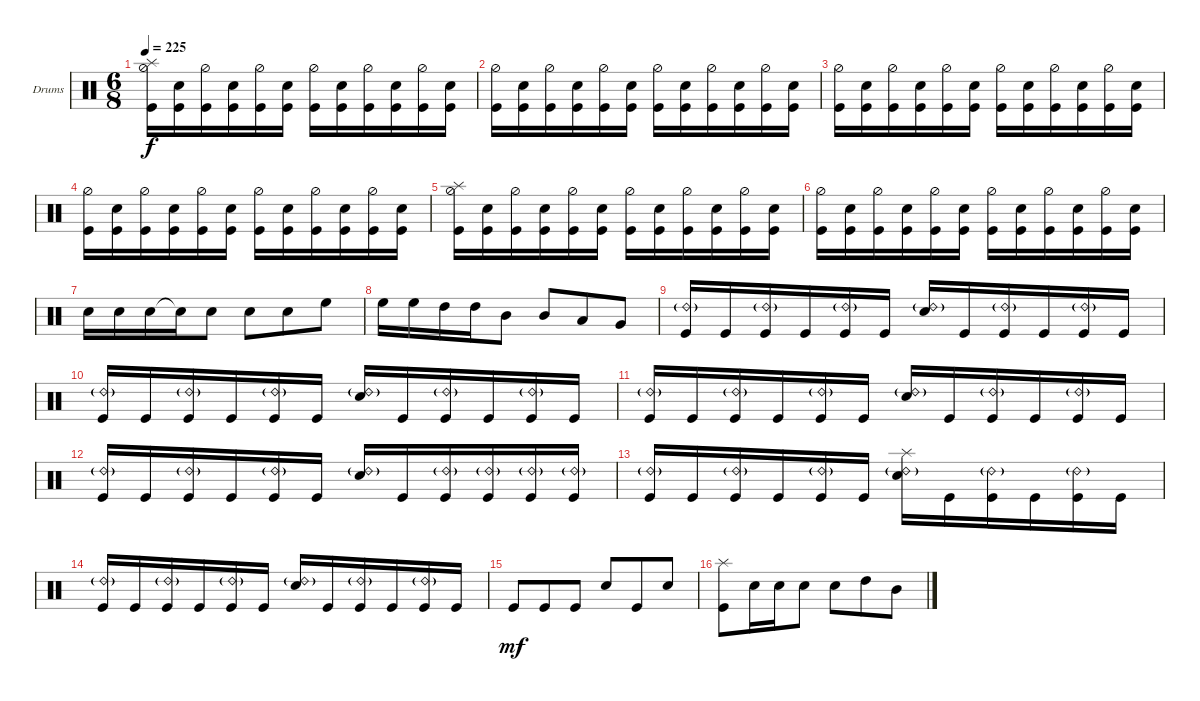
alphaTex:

\bracketExtendMode groupsimilarinstruments
\firstSystemTrackNameOrientation horizontal
\otherSystemsTrackNameOrientation horizontal
\track ("Drumkit" "Drums") {solo instrument percussion}
\staff {score}
\articulation defaults
\ts (6 8)
\tempo 225
\clef neutral
\ks c
("Kick (hit)" "Hi-Hat (half)" "Splash (hit)").16{dy f} ("Kick (hit)" "Snare (hit) 2").16 ("Kick (hit)" "Hi-Hat (half)").16 ("Kick (hit)" "Snare (hit) 2").16 ("Kick (hit)" "Hi-Hat (half)").16 ("Kick (hit)" "Snare (hit) 2").16 ("Kick (hit)" "Hi-Hat (half)").16 ("Kick (hit)" "Snare (hit) 2").16 ("Kick (hit)" "Hi-Hat (half)").16 ("Kick (hit)" "Snare (hit) 2").16 ("Kick (hit)" "Hi-Hat (half)").16 ("Kick (hit)" "Snare (hit) 2").16 |
("Kick (hit)" "Hi-Hat (half)").16 ("Kick (hit)" "Snare (hit) 2").16 ("Kick (hit)" "Hi-Hat (half)").16 ("Kick (hit)" "Snare (hit) 2").16 ("Kick (hit)" "Hi-Hat (half)").16 ("Kick (hit)" "Snare (hit) 2").16 ("Kick (hit)" "Hi-Hat (half)").16 ("Kick (hit)" "Snare (hit) 2").16 ("Kick (hit)" "Hi-Hat (half)").16 ("Kick (hit)" "Snare (hit) 2").16 ("Kick (hit)" "Hi-Hat (half)").16 ("Kick (hit)" "Snare (hit) 2").16 |
("Kick (hit)" "Hi-Hat (half)").16 ("Kick (hit)" "Snare (hit) 2").16 ("Kick (hit)" "Hi-Hat (half)").16 ("Kick (hit)" "Snare (hit) 2").16 ("Kick (hit)" "Hi-Hat (half)").16 ("Kick (hit)" "Snare (hit) 2").16 ("Kick (hit)" "Hi-Hat (half)").16 ("Kick (hit)" "Snare (hit) 2").16 ("Kick (hit)" "Hi-Hat (half)").16 ("Kick (hit)" "Snare (hit) 2").16 ("Kick (hit)" "Hi-Hat (half)").16 ("Kick (hit)" "Snare (hit) 2").16 |
("Kick (hit)" "Hi-Hat (half)").16 ("Kick (hit)" "Snare (hit) 2").16 ("Kick (hit)" "Hi-Hat (half)").16 ("Kick (hit)" "Snare (hit) 2").16 ("Kick (hit)" "Hi-Hat (half)").16 ("Kick (hit)" "Snare (hit) 2").16 ("Kick (hit)" "Hi-Hat (half)").16 ("Kick (hit)" "Snare (hit) 2").16 ("Kick (hit)" "Hi-Hat (half)").16 ("Kick (hit)" "Snare (hit) 2").16 ("Kick (hit)" "Hi-Hat (half)").16 ("Kick (hit)" "Snare (hit) 2").16 |
("Kick (hit)" "Hi-Hat (half)" "Splash (hit)").16 ("Kick (hit)" "Snare (hit) 2").16 ("Kick (hit)" "Hi-Hat (half)").16 ("Kick (hit)" "Snare (hit) 2").16 ("Kick (hit)" "Hi-Hat (half)").16 ("Kick (hit)" "Snare (hit) 2").16 ("Kick (hit)" "Hi-Hat (half)").16 ("Kick (hit)" "Snare (hit) 2").16 ("Kick (hit)" "Hi-Hat (half)").16 ("Kick (hit)" "Snare (hit) 2").16 ("Kick (hit)" "Hi-Hat (half)").16 ("Kick (hit)" "Snare (hit) 2").16 |
("Kick (hit)" "Hi-Hat (half)").16 ("Kick (hit)" "Snare (hit) 2").16 ("Kick (hit)" "Hi-Hat (half)").16 ("Kick (hit)" "Snare (hit) 2").16 ("Kick (hit)" "Hi-Hat (half)").16 ("Kick (hit)" "Snare (hit) 2").16 ("Kick (hit)" "Hi-Hat (half)").16 ("Kick (hit)" "Snare (hit) 2").16 ("Kick (hit)" "Hi-Hat (half)").16 ("Kick (hit)" "Snare (hit) 2").16 ("Kick (hit)" "Hi-Hat (half)").16 ("Kick (hit)" "Snare (hit) 2").16 |
"Snare (hit) 2".16 "Snare (hit) 2".16 "Snare (hit) 2".16 "Snare (hit) 2"{t}.16 "Snare (hit) 2".8 "Snare (hit) 2".8 "Snare (hit) 2".8 "High Floor Tom (hit)".8 |
"High Floor Tom (hit)".16 "High Floor Tom (hit)".16 "High Tom (hit)".16 "High Tom (hit)".16 "Mid Tom (hit)".8 "Mid Tom (hit)".8 "Low Tom (hit)".8 "Very Low Tom (hit)".8 |
("Kick (hit)" "Ride (bell) 2"{g}).16 "Kick (hit)".16 ("Kick (hit)" "Ride (bell) 2"{g}).16 "Kick (hit)".16 ("Kick (hit)" "Ride (bell) 2"{g}).16 "Kick (hit)".16 ("Snare (hit) 2" "Ride (bell) 2"{g}).16 "Kick (hit)".16 ("Kick (hit)" "Ride (bell) 2"{g}).16 "Kick (hit)".16 ("Kick (hit)" "Ride (bell) 2"{g}).16 "Kick (hit)".16 |
("Kick (hit)" "Ride (bell) 2"{g}).16 "Kick (hit)".16 ("Kick (hit)" "Ride (bell) 2"{g}).16 "Kick (hit)".16 ("Kick (hit)" "Ride (bell) 2"{g}).16 "Kick (hit)".16 ("Snare (hit) 2" "Ride (bell) 2"{g}).16 "Kick (hit)".16 ("Kick (hit)" "Ride (bell) 2"{g}).16 "Kick (hit)".16 ("Kick (hit)" "Ride (bell) 2"{g}).16 "Kick (hit)".16 |
("Kick (hit)" "Ride (bell) 2"{g}).16 "Kick (hit)".16 ("Kick (hit)" "Ride (bell) 2"{g}).16 "Kick (hit)".16 ("Kick (hit)" "Ride (bell) 2"{g}).16 "Kick (hit)".16 ("Snare (hit) 2" "Ride (bell) 2"{g}).16 "Kick (hit)".16 ("Kick (hit)" "Ride (bell) 2"{g}).16 "Kick (hit)".16 ("Kick (hit)" "Ride (bell) 2"{g}).16 "Kick (hit)".16 |
("Kick (hit)" "Ride (bell) 2"{g}).16 "Kick (hit)".16 ("Kick (hit)" "Ride (bell) 2"{g}).16 "Kick (hit)".16 ("Kick (hit)" "Ride (bell) 2"{g}).16 "Kick (hit)".16 ("Snare (hit) 2" "Ride (bell) 2"{g}).16 "Kick (hit)".16 ("Kick (hit)" "Ride (bell) 2"{g}).16 ("Kick (hit)" "Ride (bell) 2"{g}).16 ("Kick (hit)" "Ride (bell) 2"{g}).16 ("Kick (hit)" "Ride (bell) 2"{g}).16 |
("Kick (hit)" "Ride (bell) 2"{g}).16 "Kick (hit)".16 ("Kick (hit)" "Ride (bell) 2"{g}).16 "Kick (hit)".16 ("Kick (hit)" "Ride (bell) 2"{g}).16 "Kick (hit)".16 ("Snare (hit) 2" "Ride (bell) 2"{g} "Splash (hit)").16 "Kick (hit)".16 ("Kick (hit)" "Ride (bell) 2"{g}).16 "Kick (hit)".16 ("Kick (hit)" "Ride (bell) 2"{g}).16 "Kick (hit)".16 |
("Kick (hit)" "Ride (bell) 2"{g}).16 "Kick (hit)".16 ("Kick (hit)" "Ride (bell) 2"{g}).16 "Kick (hit)".16 ("Kick (hit)" "Ride (bell) 2"{g}).16 "Kick (hit)".16 ("Snare (hit) 2" "Ride (bell) 2"{g}).16 "Kick (hit)".16 ("Kick (hit)" "Ride (bell) 2"{g}).16 "Kick (hit)".16 ("Kick (hit)" "Ride (bell) 2"{g}).16 "Kick (hit)".16 |
"Kick (hit)".8{dy mf} "Kick (hit)".8 "Kick (hit)".8 "Snare (hit) 2".8 "Kick (hit)".8 "Snare (hit) 2".8 |
("Kick (hit)" "Splash (hit)").8 "Snare (hit) 2".16 "Snare (hit) 2".16 "Snare (hit) 2".8 "Snare (hit) 2".8 "High Tom (hit)".8 "Mid Tom (hit)".8
